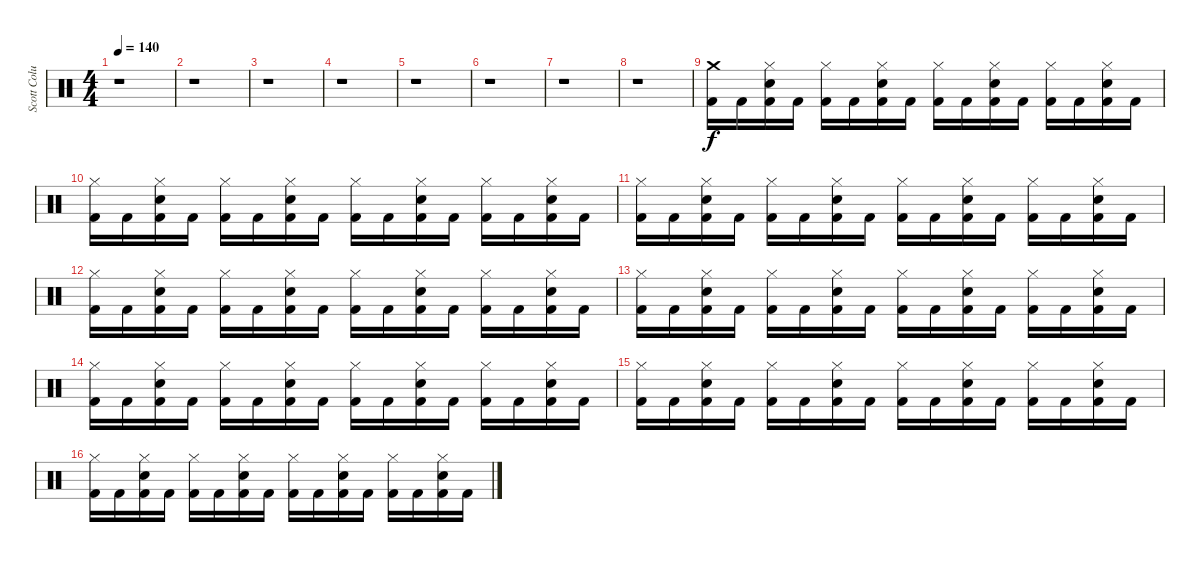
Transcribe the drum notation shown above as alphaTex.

\track ("Scott Columbus(Drums)" "Scott Colu") {instrument percussion}
\staff {score}
\articulation defaults
\ts (4 4)
\tempo 140
\clef neutral
\ks c
r.1{dy f} |
r.1 |
r.1 |
r.1 |
r.1 |
r.1 |
r.1 |
r.1 |
("Crash medium (hit)" "Kick (hit) 2").16 "Kick (hit) 2".16 ("Hi-Hat (closed)" "Snare (hit) 2" "Kick (hit) 2").16 "Kick (hit) 2".16 ("Hi-Hat (closed)" "Kick (hit) 2").16 "Kick (hit) 2".16 ("Hi-Hat (closed)" "Snare (hit) 2" "Kick (hit) 2").16 "Kick (hit) 2".16 ("Hi-Hat (closed)" "Kick (hit) 2").16 "Kick (hit) 2".16 ("Hi-Hat (closed)" "Snare (hit) 2" "Kick (hit) 2").16 "Kick (hit) 2".16 ("Hi-Hat (closed)" "Kick (hit) 2").16 "Kick (hit) 2".16 ("Hi-Hat (closed)" "Snare (hit) 2" "Kick (hit) 2").16 "Kick (hit) 2".16 |
("Hi-Hat (closed)" "Kick (hit) 2").16 "Kick (hit) 2".16 ("Hi-Hat (closed)" "Snare (hit) 2" "Kick (hit) 2").16 "Kick (hit) 2".16 ("Hi-Hat (closed)" "Kick (hit) 2").16 "Kick (hit) 2".16 ("Hi-Hat (closed)" "Snare (hit) 2" "Kick (hit) 2").16 "Kick (hit) 2".16 ("Hi-Hat (closed)" "Kick (hit) 2").16 "Kick (hit) 2".16 ("Hi-Hat (closed)" "Snare (hit) 2" "Kick (hit) 2").16 "Kick (hit) 2".16 ("Hi-Hat (closed)" "Kick (hit) 2").16 "Kick (hit) 2".16 ("Hi-Hat (closed)" "Snare (hit) 2" "Kick (hit) 2").16 "Kick (hit) 2".16 |
("Hi-Hat (closed)" "Kick (hit) 2").16 "Kick (hit) 2".16 ("Hi-Hat (closed)" "Snare (hit) 2" "Kick (hit) 2").16 "Kick (hit) 2".16 ("Hi-Hat (closed)" "Kick (hit) 2").16 "Kick (hit) 2".16 ("Hi-Hat (closed)" "Snare (hit) 2" "Kick (hit) 2").16 "Kick (hit) 2".16 ("Hi-Hat (closed)" "Kick (hit) 2").16 "Kick (hit) 2".16 ("Hi-Hat (closed)" "Snare (hit) 2" "Kick (hit) 2").16 "Kick (hit) 2".16 ("Hi-Hat (closed)" "Kick (hit) 2").16 "Kick (hit) 2".16 ("Hi-Hat (closed)" "Snare (hit) 2" "Kick (hit) 2").16 "Kick (hit) 2".16 |
("Hi-Hat (closed)" "Kick (hit) 2").16 "Kick (hit) 2".16 ("Hi-Hat (closed)" "Snare (hit) 2" "Kick (hit) 2").16 "Kick (hit) 2".16 ("Hi-Hat (closed)" "Kick (hit) 2").16 "Kick (hit) 2".16 ("Hi-Hat (closed)" "Snare (hit) 2" "Kick (hit) 2").16 "Kick (hit) 2".16 ("Hi-Hat (closed)" "Kick (hit) 2").16 "Kick (hit) 2".16 ("Hi-Hat (closed)" "Snare (hit) 2" "Kick (hit) 2").16 "Kick (hit) 2".16 ("Hi-Hat (closed)" "Kick (hit) 2").16 "Kick (hit) 2".16 ("Hi-Hat (closed)" "Snare (hit) 2" "Kick (hit) 2").16 "Kick (hit) 2".16 |
("Hi-Hat (closed)" "Kick (hit) 2").16 "Kick (hit) 2".16 ("Hi-Hat (closed)" "Snare (hit) 2" "Kick (hit) 2").16 "Kick (hit) 2".16 ("Hi-Hat (closed)" "Kick (hit) 2").16 "Kick (hit) 2".16 ("Hi-Hat (closed)" "Snare (hit) 2" "Kick (hit) 2").16 "Kick (hit) 2".16 ("Hi-Hat (closed)" "Kick (hit) 2").16 "Kick (hit) 2".16 ("Hi-Hat (closed)" "Snare (hit) 2" "Kick (hit) 2").16 "Kick (hit) 2".16 ("Hi-Hat (closed)" "Kick (hit) 2").16 "Kick (hit) 2".16 ("Hi-Hat (closed)" "Snare (hit) 2" "Kick (hit) 2").16 "Kick (hit) 2".16 |
("Hi-Hat (closed)" "Kick (hit) 2").16 "Kick (hit) 2".16 ("Hi-Hat (closed)" "Snare (hit) 2" "Kick (hit) 2").16 "Kick (hit) 2".16 ("Hi-Hat (closed)" "Kick (hit) 2").16 "Kick (hit) 2".16 ("Hi-Hat (closed)" "Snare (hit) 2" "Kick (hit) 2").16 "Kick (hit) 2".16 ("Hi-Hat (closed)" "Kick (hit) 2").16 "Kick (hit) 2".16 ("Hi-Hat (closed)" "Snare (hit) 2" "Kick (hit) 2").16 "Kick (hit) 2".16 ("Hi-Hat (closed)" "Kick (hit) 2").16 "Kick (hit) 2".16 ("Hi-Hat (closed)" "Snare (hit) 2" "Kick (hit) 2").16 "Kick (hit) 2".16 |
("Hi-Hat (closed)" "Kick (hit) 2").16 "Kick (hit) 2".16 ("Hi-Hat (closed)" "Snare (hit) 2" "Kick (hit) 2").16 "Kick (hit) 2".16 ("Hi-Hat (closed)" "Kick (hit) 2").16 "Kick (hit) 2".16 ("Hi-Hat (closed)" "Snare (hit) 2" "Kick (hit) 2").16 "Kick (hit) 2".16 ("Hi-Hat (closed)" "Kick (hit) 2").16 "Kick (hit) 2".16 ("Hi-Hat (closed)" "Snare (hit) 2" "Kick (hit) 2").16 "Kick (hit) 2".16 ("Hi-Hat (closed)" "Kick (hit) 2").16 "Kick (hit) 2".16 ("Hi-Hat (closed)" "Snare (hit) 2" "Kick (hit) 2").16 "Kick (hit) 2".16 |
("Hi-Hat (closed)" "Kick (hit) 2").16 "Kick (hit) 2".16 ("Hi-Hat (closed)" "Snare (hit) 2" "Kick (hit) 2").16 "Kick (hit) 2".16 ("Hi-Hat (closed)" "Kick (hit) 2").16 "Kick (hit) 2".16 ("Hi-Hat (closed)" "Snare (hit) 2" "Kick (hit) 2").16 "Kick (hit) 2".16 ("Hi-Hat (closed)" "Kick (hit) 2").16 "Kick (hit) 2".16 ("Hi-Hat (closed)" "Snare (hit) 2" "Kick (hit) 2").16 "Kick (hit) 2".16 ("Hi-Hat (closed)" "Kick (hit) 2").16 "Kick (hit) 2".16 ("Hi-Hat (closed)" "Snare (hit) 2" "Kick (hit) 2").16 "Kick (hit) 2".16
